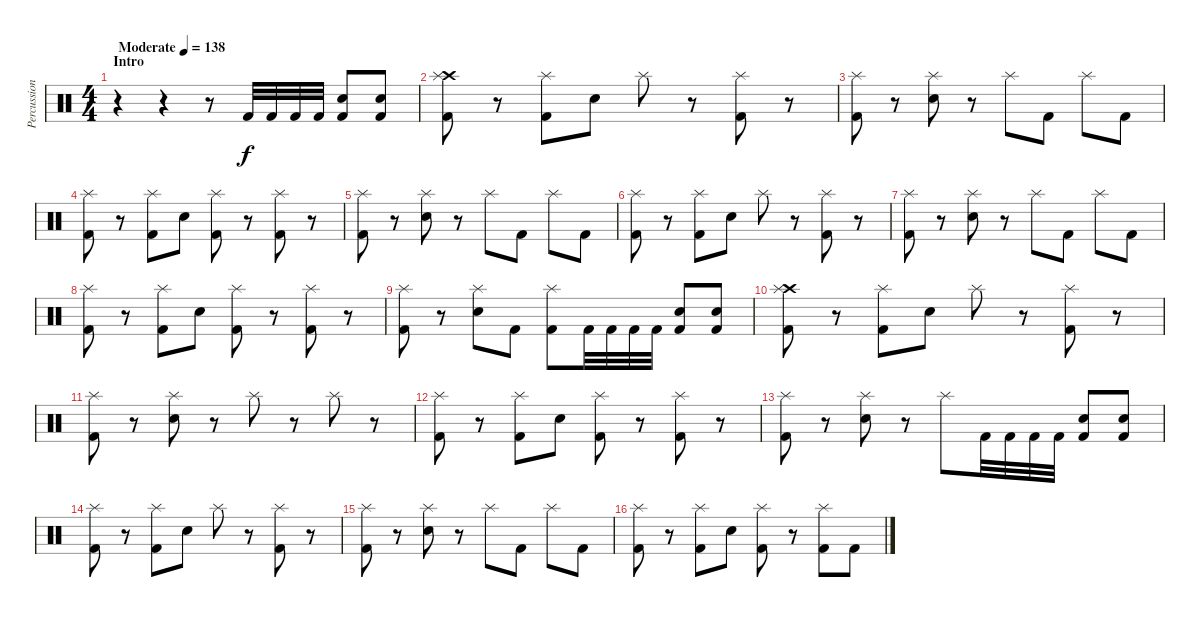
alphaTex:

\track ("Percussions" "Percussion") {instrument percussion}
\staff {score}
\articulation defaults
\ts (4 4)
\section ("" "Intro")
\tempo (138 "Moderate")
\clef neutral
\ks c
r.4{dy f} r.4 r.8 "Kick (hit) 2".32 "Kick (hit) 2".32 "Kick (hit) 2".32 "Kick (hit) 2".32 ("Snare (hit) 2" "Kick (hit) 2").8 ("Snare (hit) 2" "Kick (hit) 2").8 |
("Crash high (hit)" "Splash (hit)" "Kick (hit) 2").8 r.8 ("Splash (hit)" "Kick (hit) 2").8 "Snare (hit) 2".8 "Splash (hit)".8 r.8 ("Splash (hit)" "Kick (hit) 2").8 r.8 |
("Splash (hit)" "Kick (hit) 2").8 r.8 ("Splash (hit)" "Snare (hit) 2").8 r.8 "Splash (hit)".8 "Kick (hit) 2".8 "Splash (hit)".8 "Kick (hit) 2".8 |
("Splash (hit)" "Kick (hit) 2").8 r.8 ("Splash (hit)" "Kick (hit) 2").8 "Snare (hit) 2".8 ("Splash (hit)" "Kick (hit) 2").8 r.8 ("Splash (hit)" "Kick (hit) 2").8 r.8 |
("Splash (hit)" "Kick (hit) 2").8 r.8 ("Splash (hit)" "Snare (hit) 2").8 r.8 "Splash (hit)".8 "Kick (hit) 2".8 "Splash (hit)".8 "Kick (hit) 2".8 |
("Splash (hit)" "Kick (hit) 2").8 r.8 ("Splash (hit)" "Kick (hit) 2").8 "Snare (hit) 2".8 "Splash (hit)".8 r.8 ("Splash (hit)" "Kick (hit) 2").8 r.8 |
("Splash (hit)" "Kick (hit) 2").8 r.8 ("Splash (hit)" "Snare (hit) 2").8 r.8 "Splash (hit)".8 "Kick (hit) 2".8 "Splash (hit)".8 "Kick (hit) 2".8 |
("Splash (hit)" "Kick (hit) 2").8 r.8 ("Splash (hit)" "Kick (hit) 2").8 "Snare (hit) 2".8 ("Splash (hit)" "Kick (hit) 2").8 r.8 ("Splash (hit)" "Kick (hit) 2").8 r.8 |
("Splash (hit)" "Kick (hit) 2").8 r.8 ("Splash (hit)" "Snare (hit) 2").8 "Kick (hit) 2".8 ("Splash (hit)" "Kick (hit) 2").8 "Kick (hit) 2".32 "Kick (hit) 2".32 "Kick (hit) 2".32 "Kick (hit) 2".32 ("Snare (hit) 2" "Kick (hit) 2").8 ("Snare (hit) 2" "Kick (hit) 2").8 |
("Crash high (hit)" "Splash (hit)" "Kick (hit) 2").8 r.8 ("Splash (hit)" "Kick (hit) 2").8 "Snare (hit) 2".8 "Splash (hit)".8 r.8 ("Splash (hit)" "Kick (hit) 2").8 r.8 |
("Splash (hit)" "Kick (hit) 2").8 r.8 ("Splash (hit)" "Snare (hit) 2").8 r.8 "Splash (hit)".8 r.8 "Splash (hit)".8 r.8 |
("Splash (hit)" "Kick (hit) 2").8 r.8 ("Splash (hit)" "Kick (hit) 2").8 "Snare (hit) 2".8 ("Splash (hit)" "Kick (hit) 2").8 r.8 ("Splash (hit)" "Kick (hit) 2").8 r.8 |
("Splash (hit)" "Kick (hit) 2").8 r.8 ("Splash (hit)" "Snare (hit) 2").8 r.8 "Splash (hit)".8 "Kick (hit) 2".32 "Kick (hit) 2".32 "Kick (hit) 2".32 "Kick (hit) 2".32 ("Snare (hit) 2" "Kick (hit) 2").8 ("Snare (hit) 2" "Kick (hit) 2").8 |
("Splash (hit)" "Kick (hit) 2").8 r.8 ("Splash (hit)" "Kick (hit) 2").8 "Snare (hit) 2".8 "Splash (hit)".8 r.8 ("Splash (hit)" "Kick (hit) 2").8 r.8 |
("Splash (hit)" "Kick (hit) 2").8 r.8 ("Splash (hit)" "Snare (hit) 2").8 r.8 "Splash (hit)".8 "Kick (hit) 2".8 "Splash (hit)".8 "Kick (hit) 2".8 |
("Splash (hit)" "Kick (hit) 2").8 r.8 ("Splash (hit)" "Kick (hit) 2").8 "Snare (hit) 2".8 ("Splash (hit)" "Kick (hit) 2").8 r.8 ("Splash (hit)" "Kick (hit) 2").8 "Kick (hit) 2".8
